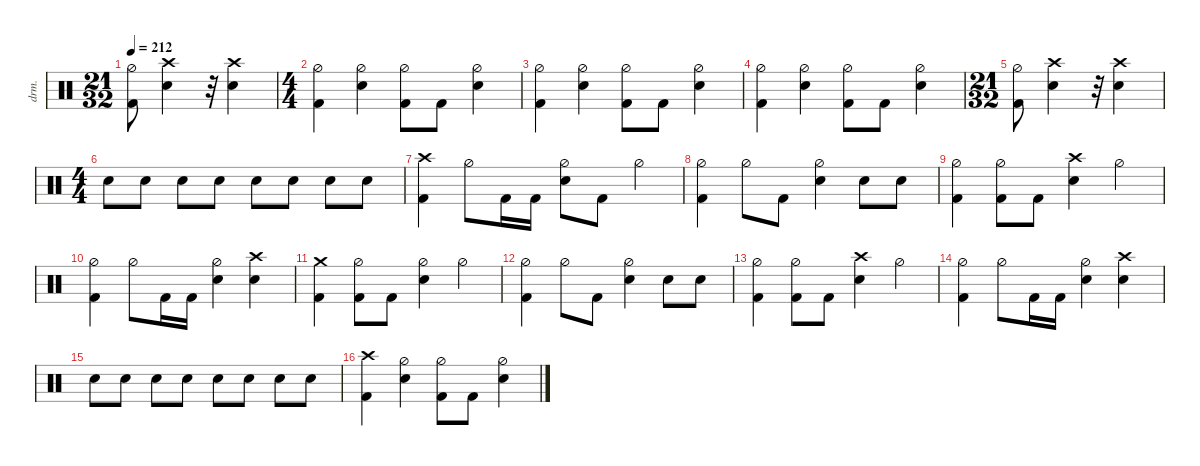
\defaultSystemsLayout 4
\hideDynamics
\bracketExtendMode nobrackets
\track ("Drums" "drm.") {defaultSystemsLayout 4 multiBarRest instrument percussion}
\staff
\articulation defaults
\ts (21 32)
\beaming (8 3 2)
\tempo 212
\clef neutral
\ks c
("Kick (hit) 2" "Hi-Hat (half)").8{dy f} ("Snare (hit) 2" "Crash high (hit)").4 r.32 ("Snare (hit) 2" "Crash high (hit)").4 |
\ts (4 4)
\beaming (8 2 2 2 2)
("Kick (hit) 2" "Hi-Hat (half)").4 ("Hi-Hat (half)" "Snare (hit) 2").4 ("Hi-Hat (half)" "Kick (hit) 2").8 "Kick (hit) 2".8 ("Hi-Hat (half)" "Snare (hit) 2").4 |
("Kick (hit) 2" "Hi-Hat (half)").4 ("Hi-Hat (half)" "Snare (hit) 2").4 ("Hi-Hat (half)" "Kick (hit) 2").8 "Kick (hit) 2".8 ("Hi-Hat (half)" "Snare (hit) 2").4 |
("Kick (hit) 2" "Hi-Hat (half)").4 ("Hi-Hat (half)" "Snare (hit) 2").4 ("Hi-Hat (half)" "Kick (hit) 2").8 "Kick (hit) 2".8 ("Hi-Hat (half)" "Snare (hit) 2").4 |
\ts (21 32)
\beaming (8 3 2)
("Kick (hit) 2" "Hi-Hat (half)").8 ("Snare (hit) 2" "Crash high (hit)").4 r.32 ("Snare (hit) 2" "Crash high (hit)").4 |
\ts (4 4)
\beaming (8 2 2 2 2)
"Snare (hit) 2".8 "Snare (hit) 2".8 "Snare (hit) 2".8 "Snare (hit) 2".8 "Snare (hit) 2".8 "Snare (hit) 2".8 "Snare (hit) 2".8 "Snare (hit) 2".8 |
("Crash high (hit)" "Kick (hit) 2").4 "Hi-Hat (half)".8 "Kick (hit) 2".16 "Kick (hit) 2".16 ("Snare (hit) 2" "Hi-Hat (half)").8 "Kick (hit) 2".8 "Hi-Hat (half)".4 |
("Hi-Hat (half)" "Kick (hit) 2").4 "Hi-Hat (half)".8 "Kick (hit) 2".8 ("Hi-Hat (half)" "Snare (hit) 2").4 "Snare (hit) 2".8 "Snare (hit) 2".8 |
("Hi-Hat (half)" "Kick (hit) 2").4 ("Hi-Hat (half)" "Kick (hit) 2").8 "Kick (hit) 2".8 ("Snare (hit) 2" "Crash high (hit)").4 "Hi-Hat (half)".4 |
("Hi-Hat (half)" "Kick (hit) 2").4 "Hi-Hat (half)".8 "Kick (hit) 2".16 "Kick (hit) 2".16 ("Snare (hit) 2" "Hi-Hat (half)").4 ("Snare (hit) 2" "Crash high (hit)").4 |
("Crash medium (hit)" "Kick (hit) 2").4 ("Hi-Hat (half)" "Kick (hit) 2").8 "Kick (hit) 2".8 ("Hi-Hat (half)" "Snare (hit) 2").4 "Hi-Hat (half)".4 |
("Hi-Hat (half)" "Kick (hit) 2").4 "Hi-Hat (half)".8 "Kick (hit) 2".8 ("Hi-Hat (half)" "Snare (hit) 2").4 "Snare (hit) 2".8 "Snare (hit) 2".8 |
("Hi-Hat (half)" "Kick (hit) 2").4 ("Hi-Hat (half)" "Kick (hit) 2").8 "Kick (hit) 2".8 ("Snare (hit) 2" "Crash high (hit)").4 "Hi-Hat (half)".4 |
("Hi-Hat (half)" "Kick (hit) 2").4 "Hi-Hat (half)".8 "Kick (hit) 2".16 "Kick (hit) 2".16 ("Snare (hit) 2" "Hi-Hat (half)").4 ("Snare (hit) 2" "Crash high (hit)").4 |
"Snare (hit) 2".8 "Snare (hit) 2".8 "Snare (hit) 2".8 "Snare (hit) 2".8 "Snare (hit) 2".8 "Snare (hit) 2".8 "Snare (hit) 2".8 "Snare (hit) 2".8 |
("Crash high (hit)" "Kick (hit) 2").4 ("Hi-Hat (half)" "Snare (hit) 2").4 ("Hi-Hat (half)" "Kick (hit) 2").8 "Kick (hit) 2".8 ("Hi-Hat (half)" "Snare (hit) 2").4
